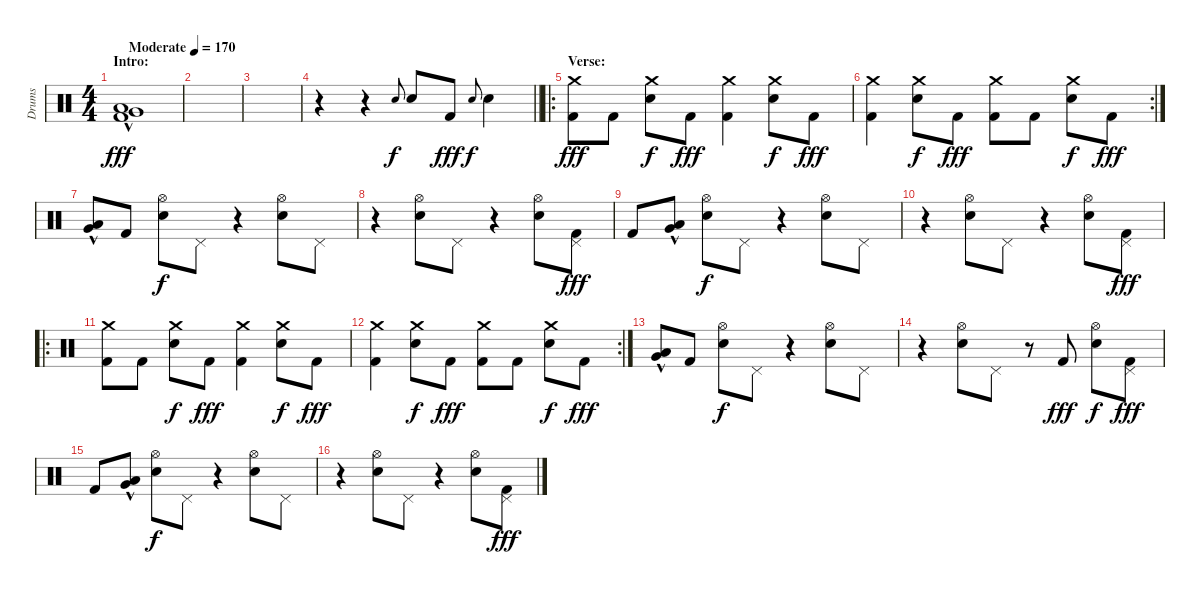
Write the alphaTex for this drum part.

\track ("Drums" "Drums") {instrument percussion}
\staff {score}
\articulation defaults
\ts (4 4)
\section ("" "Intro:")
\tempo (170 "Moderate")
\clef neutral
\ks c
("Low Tom (hit)"{hac} "Very Low Tom (hit)"{hac} "Kick (hit) 2"{hac}).1{dy fff} |
|
|
\barLineRight lightlight
r.4 r.4 "Electric Snare (hit)".8{gr onbeat dy f} "Electric Snare (hit)".8 "Kick (hit) 2".8{dy fff} "Electric Snare (hit)".8{gr onbeat dy f} "Electric Snare (hit)".4 |
\ro
\section ("" "Verse:")
("Crash medium (hit)" "Kick (hit) 2").8{dy fff} "Kick (hit) 2".8 ("Crash medium (hit)" "Electric Snare (hit)").8{dy f} "Kick (hit) 2".8{dy fff} ("Crash medium (hit)" "Kick (hit) 2").4 ("Crash medium (hit)" "Electric Snare (hit)").8{dy f} "Kick (hit) 2".8{dy fff} |
\rc 2
("Crash medium (hit)" "Kick (hit) 2").4 ("Crash medium (hit)" "Electric Snare (hit)").8{dy f} "Kick (hit) 2".8{dy fff} ("Crash medium (hit)" "Kick (hit) 2").8 "Kick (hit) 2".8 ("Crash medium (hit)" "Electric Snare (hit)").8{dy f} "Kick (hit) 2".8{dy fff} |
("Low Tom (hit)"{hac} "Very Low Tom (hit)"{hac}).8 "Kick (hit) 2".8 ("Hi-Hat (open)" "Electric Snare (hit)").8{dy f} "Pedal Hi-Hat (hit)".8 r.4 ("Hi-Hat (open)" "Electric Snare (hit)").8 "Pedal Hi-Hat (hit)".8 |
r.4 ("Hi-Hat (open)" "Electric Snare (hit)").8 "Pedal Hi-Hat (hit)".8 r.4 ("Hi-Hat (open)" "Electric Snare (hit)").8 ("Pedal Hi-Hat (hit)" "Kick (hit) 2").8{dy fff} |
"Kick (hit) 2".8 ("Low Tom (hit)"{hac} "Very Low Tom (hit)"{hac}).8 ("Hi-Hat (open)" "Electric Snare (hit)").8{dy f} "Pedal Hi-Hat (hit)".8 r.4 ("Hi-Hat (open)" "Electric Snare (hit)").8 "Pedal Hi-Hat (hit)".8 |
r.4 ("Hi-Hat (open)" "Electric Snare (hit)").8 "Pedal Hi-Hat (hit)".8 r.4 ("Hi-Hat (open)" "Electric Snare (hit)").8 ("Pedal Hi-Hat (hit)" "Kick (hit) 2").8{dy fff} |
\ro
("Crash medium (hit)" "Kick (hit) 2").8 "Kick (hit) 2".8 ("Crash medium (hit)" "Electric Snare (hit)").8{dy f} "Kick (hit) 2".8{dy fff} ("Crash medium (hit)" "Kick (hit) 2").4 ("Crash medium (hit)" "Electric Snare (hit)").8{dy f} "Kick (hit) 2".8{dy fff} |
\rc 2
("Crash medium (hit)" "Kick (hit) 2").4 ("Crash medium (hit)" "Electric Snare (hit)").8{dy f} "Kick (hit) 2".8{dy fff} ("Crash medium (hit)" "Kick (hit) 2").8 "Kick (hit) 2".8 ("Crash medium (hit)" "Electric Snare (hit)").8{dy f} "Kick (hit) 2".8{dy fff} |
("Low Tom (hit)"{hac} "Very Low Tom (hit)"{hac}).8 "Kick (hit) 2".8 ("Hi-Hat (open)" "Electric Snare (hit)").8{dy f} "Pedal Hi-Hat (hit)".8 r.4 ("Hi-Hat (open)" "Electric Snare (hit)").8 "Pedal Hi-Hat (hit)".8 |
r.4 ("Hi-Hat (open)" "Electric Snare (hit)").8 "Pedal Hi-Hat (hit)".8 r.8 "Kick (hit) 2".8{dy fff} ("Hi-Hat (open)" "Electric Snare (hit)").8{dy f} ("Pedal Hi-Hat (hit)" "Kick (hit) 2").8{dy fff} |
"Kick (hit) 2".8 ("Low Tom (hit)"{hac} "Very Low Tom (hit)"{hac}).8 ("Hi-Hat (open)" "Electric Snare (hit)").8{dy f} "Pedal Hi-Hat (hit)".8 r.4 ("Hi-Hat (open)" "Electric Snare (hit)").8 "Pedal Hi-Hat (hit)".8 |
r.4 ("Hi-Hat (open)" "Electric Snare (hit)").8 "Pedal Hi-Hat (hit)".8 r.4 ("Hi-Hat (open)" "Electric Snare (hit)").8 ("Pedal Hi-Hat (hit)" "Kick (hit) 2").8{dy fff}
